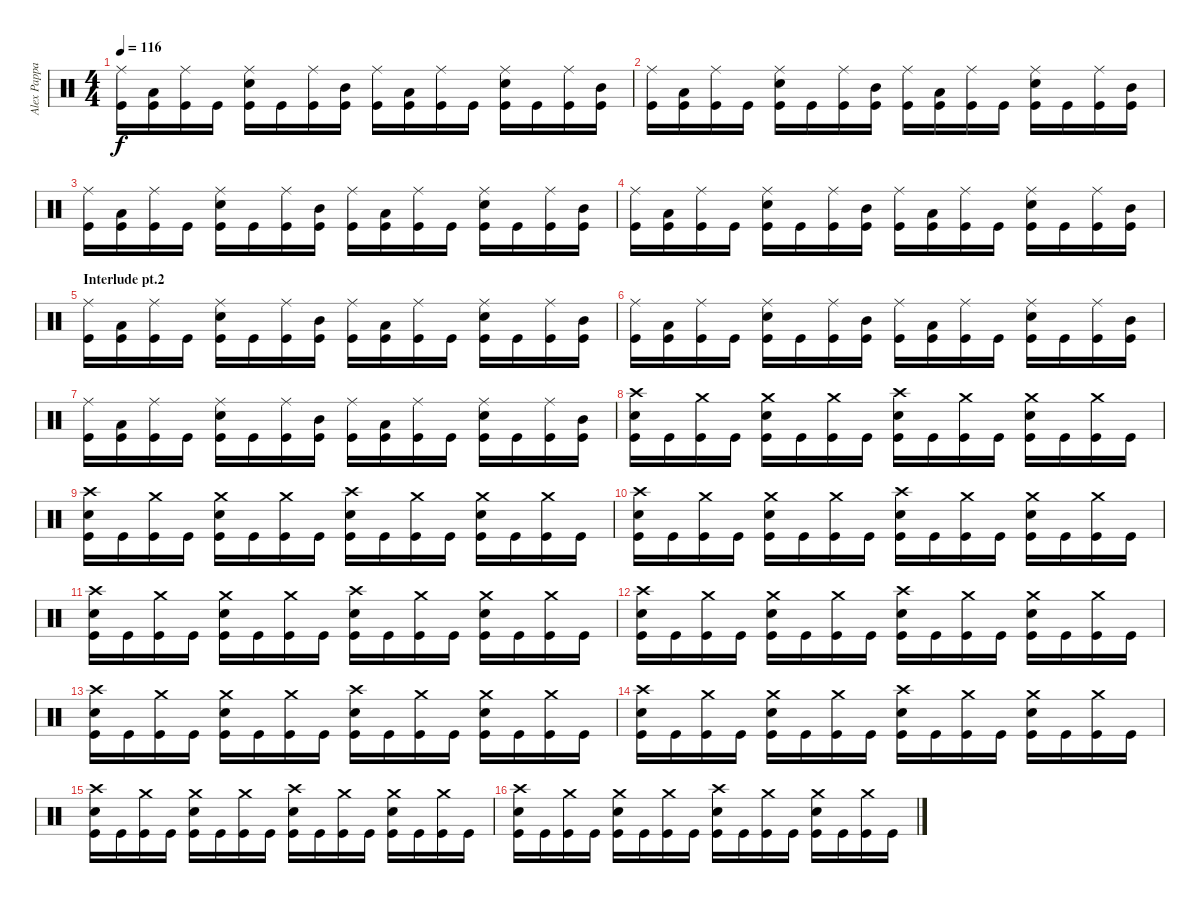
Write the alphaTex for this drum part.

\track ("Alex Pappas" "Alex Pappa") {instrument percussion}
\staff {score}
\articulation defaults
\ts (4 4)
\tempo 116
\clef neutral
\ks c
("Ride (middle)" "Kick (hit)").16{dy f} ("Low Tom (hit)" "Kick (hit)").16 ("Ride (middle)" "Kick (hit)").16 "Kick (hit)".16 ("Ride (middle)" "Electric Snare (hit)" "Kick (hit)").16 "Kick (hit)".16 ("Ride (middle)" "Kick (hit)").16 ("Mid Tom (hit)" "Kick (hit)").16 ("Ride (middle)" "Kick (hit)").16 ("Low Tom (hit)" "Kick (hit)").16 ("Ride (middle)" "Kick (hit)").16 "Kick (hit)".16 ("Ride (middle)" "Electric Snare (hit)" "Kick (hit)").16 "Kick (hit)".16 ("Ride (middle)" "Kick (hit)").16 ("Mid Tom (hit)" "Kick (hit)").16 |
("Ride (middle)" "Kick (hit)").16 ("Low Tom (hit)" "Kick (hit)").16 ("Ride (middle)" "Kick (hit)").16 "Kick (hit)".16 ("Ride (middle)" "Electric Snare (hit)" "Kick (hit)").16 "Kick (hit)".16 ("Ride (middle)" "Kick (hit)").16 ("Mid Tom (hit)" "Kick (hit)").16 ("Ride (middle)" "Kick (hit)").16 ("Low Tom (hit)" "Kick (hit)").16 ("Ride (middle)" "Kick (hit)").16 "Kick (hit)".16 ("Ride (middle)" "Electric Snare (hit)" "Kick (hit)").16 "Kick (hit)".16 ("Ride (middle)" "Kick (hit)").16 ("Mid Tom (hit)" "Kick (hit)").16 |
("Ride (middle)" "Kick (hit)").16 ("Low Tom (hit)" "Kick (hit)").16 ("Ride (middle)" "Kick (hit)").16 "Kick (hit)".16 ("Ride (middle)" "Electric Snare (hit)" "Kick (hit)").16 "Kick (hit)".16 ("Ride (middle)" "Kick (hit)").16 ("Mid Tom (hit)" "Kick (hit)").16 ("Ride (middle)" "Kick (hit)").16 ("Low Tom (hit)" "Kick (hit)").16 ("Ride (middle)" "Kick (hit)").16 "Kick (hit)".16 ("Ride (middle)" "Electric Snare (hit)" "Kick (hit)").16 "Kick (hit)".16 ("Ride (middle)" "Kick (hit)").16 ("Mid Tom (hit)" "Kick (hit)").16 |
("Ride (middle)" "Kick (hit)").16 ("Low Tom (hit)" "Kick (hit)").16 ("Ride (middle)" "Kick (hit)").16 "Kick (hit)".16 ("Ride (middle)" "Electric Snare (hit)" "Kick (hit)").16 "Kick (hit)".16 ("Ride (middle)" "Kick (hit)").16 ("Mid Tom (hit)" "Kick (hit)").16 ("Ride (middle)" "Kick (hit)").16 ("Low Tom (hit)" "Kick (hit)").16 ("Ride (middle)" "Kick (hit)").16 "Kick (hit)".16 ("Ride (middle)" "Electric Snare (hit)" "Kick (hit)").16 "Kick (hit)".16 ("Ride (middle)" "Kick (hit)").16 ("Mid Tom (hit)" "Kick (hit)").16 |
\section ("" "Interlude pt.2")
("Ride (middle)" "Kick (hit)").16 ("Low Tom (hit)" "Kick (hit)").16 ("Ride (middle)" "Kick (hit)").16 "Kick (hit)".16 ("Ride (middle)" "Electric Snare (hit)" "Kick (hit)").16 "Kick (hit)".16 ("Ride (middle)" "Kick (hit)").16 ("Mid Tom (hit)" "Kick (hit)").16 ("Ride (middle)" "Kick (hit)").16 ("Low Tom (hit)" "Kick (hit)").16 ("Ride (middle)" "Kick (hit)").16 "Kick (hit)".16 ("Ride (middle)" "Electric Snare (hit)" "Kick (hit)").16 "Kick (hit)".16 ("Ride (middle)" "Kick (hit)").16 ("Mid Tom (hit)" "Kick (hit)").16 |
("Ride (middle)" "Kick (hit)").16 ("Low Tom (hit)" "Kick (hit)").16 ("Ride (middle)" "Kick (hit)").16 "Kick (hit)".16 ("Ride (middle)" "Electric Snare (hit)" "Kick (hit)").16 "Kick (hit)".16 ("Ride (middle)" "Kick (hit)").16 ("Mid Tom (hit)" "Kick (hit)").16 ("Ride (middle)" "Kick (hit)").16 ("Low Tom (hit)" "Kick (hit)").16 ("Ride (middle)" "Kick (hit)").16 "Kick (hit)".16 ("Ride (middle)" "Electric Snare (hit)" "Kick (hit)").16 "Kick (hit)".16 ("Ride (middle)" "Kick (hit)").16 ("Mid Tom (hit)" "Kick (hit)").16 |
("Ride (middle)" "Kick (hit)").16 ("Low Tom (hit)" "Kick (hit)").16 ("Ride (middle)" "Kick (hit)").16 "Kick (hit)".16 ("Ride (middle)" "Electric Snare (hit)" "Kick (hit)").16 "Kick (hit)".16 ("Ride (middle)" "Kick (hit)").16 ("Mid Tom (hit)" "Kick (hit)").16 ("Ride (middle)" "Kick (hit)").16 ("Low Tom (hit)" "Kick (hit)").16 ("Ride (middle)" "Kick (hit)").16 "Kick (hit)".16 ("Ride (middle)" "Electric Snare (hit)" "Kick (hit)").16 "Kick (hit)".16 ("Ride (middle)" "Kick (hit)").16 ("Mid Tom (hit)" "Kick (hit)").16 |
("Crash high (hit)" "Electric Snare (hit)" "Kick (hit)").16 "Kick (hit)".16 ("Crash medium (hit)" "Kick (hit)").16 "Kick (hit)".16 ("Crash medium (hit)" "Electric Snare (hit)" "Kick (hit)").16 "Kick (hit)".16 ("Crash medium (hit)" "Kick (hit)").16 "Kick (hit)".16 ("Crash high (hit)" "Electric Snare (hit)" "Kick (hit)").16 "Kick (hit)".16 ("Crash medium (hit)" "Kick (hit)").16 "Kick (hit)".16 ("Crash medium (hit)" "Electric Snare (hit)" "Kick (hit)").16 "Kick (hit)".16 ("Crash medium (hit)" "Kick (hit)").16 "Kick (hit)".16 |
("Crash high (hit)" "Electric Snare (hit)" "Kick (hit)").16 "Kick (hit)".16 ("Crash medium (hit)" "Kick (hit)").16 "Kick (hit)".16 ("Crash medium (hit)" "Electric Snare (hit)" "Kick (hit)").16 "Kick (hit)".16 ("Crash medium (hit)" "Kick (hit)").16 "Kick (hit)".16 ("Crash high (hit)" "Electric Snare (hit)" "Kick (hit)").16 "Kick (hit)".16 ("Crash medium (hit)" "Kick (hit)").16 "Kick (hit)".16 ("Crash medium (hit)" "Electric Snare (hit)" "Kick (hit)").16 "Kick (hit)".16 ("Crash medium (hit)" "Kick (hit)").16 "Kick (hit)".16 |
("Crash high (hit)" "Electric Snare (hit)" "Kick (hit)").16 "Kick (hit)".16 ("Crash medium (hit)" "Kick (hit)").16 "Kick (hit)".16 ("Crash medium (hit)" "Electric Snare (hit)" "Kick (hit)").16 "Kick (hit)".16 ("Crash medium (hit)" "Kick (hit)").16 "Kick (hit)".16 ("Crash high (hit)" "Electric Snare (hit)" "Kick (hit)").16 "Kick (hit)".16 ("Crash medium (hit)" "Kick (hit)").16 "Kick (hit)".16 ("Crash medium (hit)" "Electric Snare (hit)" "Kick (hit)").16 "Kick (hit)".16 ("Crash medium (hit)" "Kick (hit)").16 "Kick (hit)".16 |
("Crash high (hit)" "Electric Snare (hit)" "Kick (hit)").16 "Kick (hit)".16 ("Crash medium (hit)" "Kick (hit)").16 "Kick (hit)".16 ("Crash medium (hit)" "Electric Snare (hit)" "Kick (hit)").16 "Kick (hit)".16 ("Crash medium (hit)" "Kick (hit)").16 "Kick (hit)".16 ("Crash high (hit)" "Electric Snare (hit)" "Kick (hit)").16 "Kick (hit)".16 ("Crash medium (hit)" "Kick (hit)").16 "Kick (hit)".16 ("Crash medium (hit)" "Electric Snare (hit)" "Kick (hit)").16 "Kick (hit)".16 ("Crash medium (hit)" "Kick (hit)").16 "Kick (hit)".16 |
("Crash high (hit)" "Electric Snare (hit)" "Kick (hit)").16 "Kick (hit)".16 ("Crash medium (hit)" "Kick (hit)").16 "Kick (hit)".16 ("Crash medium (hit)" "Electric Snare (hit)" "Kick (hit)").16 "Kick (hit)".16 ("Crash medium (hit)" "Kick (hit)").16 "Kick (hit)".16 ("Crash high (hit)" "Electric Snare (hit)" "Kick (hit)").16 "Kick (hit)".16 ("Crash medium (hit)" "Kick (hit)").16 "Kick (hit)".16 ("Crash medium (hit)" "Electric Snare (hit)" "Kick (hit)").16 "Kick (hit)".16 ("Crash medium (hit)" "Kick (hit)").16 "Kick (hit)".16 |
("Crash high (hit)" "Electric Snare (hit)" "Kick (hit)").16 "Kick (hit)".16 ("Crash medium (hit)" "Kick (hit)").16 "Kick (hit)".16 ("Crash medium (hit)" "Electric Snare (hit)" "Kick (hit)").16 "Kick (hit)".16 ("Crash medium (hit)" "Kick (hit)").16 "Kick (hit)".16 ("Crash high (hit)" "Electric Snare (hit)" "Kick (hit)").16 "Kick (hit)".16 ("Crash medium (hit)" "Kick (hit)").16 "Kick (hit)".16 ("Crash medium (hit)" "Electric Snare (hit)" "Kick (hit)").16 "Kick (hit)".16 ("Crash medium (hit)" "Kick (hit)").16 "Kick (hit)".16 |
("Crash high (hit)" "Electric Snare (hit)" "Kick (hit)").16 "Kick (hit)".16 ("Crash medium (hit)" "Kick (hit)").16 "Kick (hit)".16 ("Crash medium (hit)" "Electric Snare (hit)" "Kick (hit)").16 "Kick (hit)".16 ("Crash medium (hit)" "Kick (hit)").16 "Kick (hit)".16 ("Crash high (hit)" "Electric Snare (hit)" "Kick (hit)").16 "Kick (hit)".16 ("Crash medium (hit)" "Kick (hit)").16 "Kick (hit)".16 ("Crash medium (hit)" "Electric Snare (hit)" "Kick (hit)").16 "Kick (hit)".16 ("Crash medium (hit)" "Kick (hit)").16 "Kick (hit)".16 |
("Crash high (hit)" "Electric Snare (hit)" "Kick (hit)").16 "Kick (hit)".16 ("Crash medium (hit)" "Kick (hit)").16 "Kick (hit)".16 ("Crash medium (hit)" "Electric Snare (hit)" "Kick (hit)").16 "Kick (hit)".16 ("Crash medium (hit)" "Kick (hit)").16 "Kick (hit)".16 ("Crash high (hit)" "Electric Snare (hit)" "Kick (hit)").16 "Kick (hit)".16 ("Crash medium (hit)" "Kick (hit)").16 "Kick (hit)".16 ("Crash medium (hit)" "Electric Snare (hit)" "Kick (hit)").16 "Kick (hit)".16 ("Crash medium (hit)" "Kick (hit)").16 "Kick (hit)".16 |
("Crash high (hit)" "Electric Snare (hit)" "Kick (hit)").16 "Kick (hit)".16 ("Crash medium (hit)" "Kick (hit)").16 "Kick (hit)".16 ("Crash medium (hit)" "Electric Snare (hit)" "Kick (hit)").16 "Kick (hit)".16 ("Crash medium (hit)" "Kick (hit)").16 "Kick (hit)".16 ("Crash high (hit)" "Electric Snare (hit)" "Kick (hit)").16 "Kick (hit)".16 ("Crash medium (hit)" "Kick (hit)").16 "Kick (hit)".16 ("Crash medium (hit)" "Electric Snare (hit)" "Kick (hit)").16 "Kick (hit)".16 ("Crash medium (hit)" "Kick (hit)").16 "Kick (hit)".16
